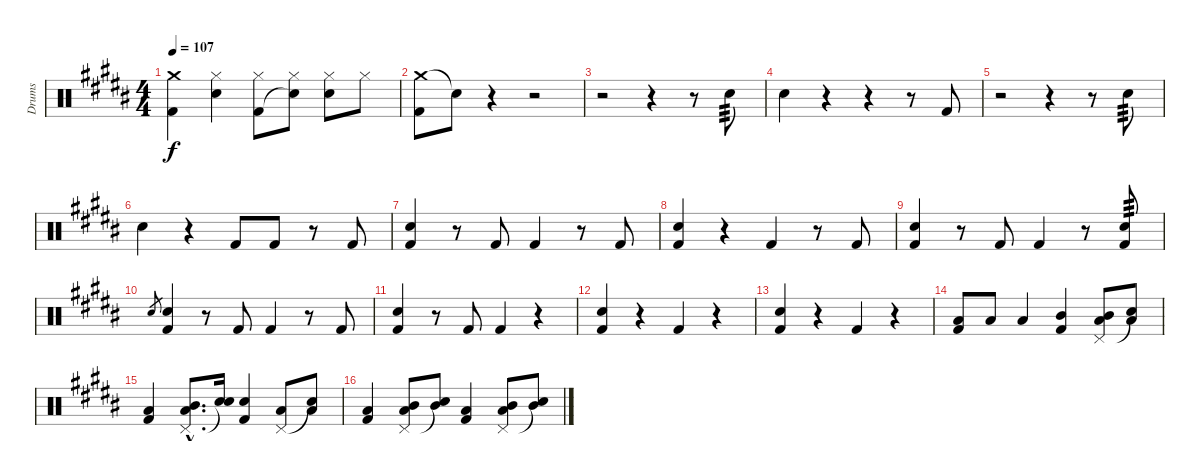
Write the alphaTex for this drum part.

\track ("Drums" "Drums") {instrument percussion}
\staff {score}
\articulation defaults
\ts (4 4)
\tempo 107
\clef neutral
\ks b
("Crash medium (hit)" "Kick (hit) 2").4{dy f} ("Hi-Hat (closed)" "Snare (hit) 2").4 ("Hi-Hat (closed)" "Kick (hit) 2").8 ("Hi-Hat (closed)" "Snare (hit)"{t}).8 ("Hi-Hat (closed)" "Snare (hit) 2").8 "Hi-Hat (closed)".8 |
("Crash medium (hit)" "Kick (hit) 2").8 "Snare (hit)"{t}.8 r.4 r.2 |
r.2 r.4 r.8 "Snare (hit) 2".8{tp 3} |
"Snare (hit) 2".4 r.4 r.4 r.8 "Kick (hit) 2".8 |
r.2 r.4 r.8 "Snare (hit) 2".8{tp 3} |
"Snare (hit) 2".4 r.4 "Kick (hit) 2".8 "Kick (hit) 2".8 r.8 "Kick (hit) 2".8 |
("Snare (hit) 2" "Kick (hit) 2").4 r.8 "Kick (hit) 2".8 "Kick (hit) 2".4 r.8 "Kick (hit) 2".8 |
("Snare (hit) 2" "Kick (hit) 2").4 r.4 "Kick (hit) 2".4 r.8 "Kick (hit) 2".8 |
("Snare (hit) 2" "Kick (hit) 2").4 r.8 "Kick (hit) 2".8 "Kick (hit) 2".4 r.8 ("Snare (hit) 2" "Kick (hit) 2").8{tp 3} |
"Snare (hit) 2".8{gr} ("Snare (hit) 2" "Kick (hit) 2").4 r.8 "Kick (hit) 2".8 "Kick (hit) 2".4 r.8 "Kick (hit) 2".8 |
("Snare (hit) 2" "Kick (hit) 2").4 r.8 "Kick (hit) 2".8 "Kick (hit) 2".4 r.4 |
("Snare (hit) 2" "Kick (hit) 2").4 r.4 "Kick (hit) 2".4 r.4 |
("Snare (hit) 2" "Kick (hit) 2").4 r.4 "Kick (hit) 2".4 r.4 |
("Low Tom (hit)" "Kick (hit) 2").8 "Low Tom (hit)".8 "Low Tom (hit)".4 ("Mid Tom (hit)" "Kick (hit) 2").4 ("Pedal Hi-Hat (hit)" "Mid Tom (hit)" "Low Tom (hit)").8 ("Snare (hit)"{t} "Low Tom (hit)").8 |
("Low Tom (hit)" "Kick (hit) 2").4 ("Pedal Hi-Hat (hit)"{hac} "Mid Tom (hit)"{hac} "Low Tom (hit)"{hac}).8{d} ("Snare (hit)"{t} "Snare (hit) 2").16 ("Snare (hit) 2" "Kick (hit) 2").4 ("Pedal Hi-Hat (hit)" "Low Tom (hit)").8 ("Snare (hit)"{t} "Low Tom (hit)").8 |
("Low Tom (hit)" "Kick (hit) 2").4 ("Pedal Hi-Hat (hit)" "Mid Tom (hit)" "Low Tom (hit)").8 ("Snare (hit)"{t} "Mid Tom (hit)").8 ("Low Tom (hit)" "Kick (hit) 2").4 ("Pedal Hi-Hat (hit)" "Mid Tom (hit)" "Low Tom (hit)").8 ("Snare (hit)"{t} "Mid Tom (hit)").8
